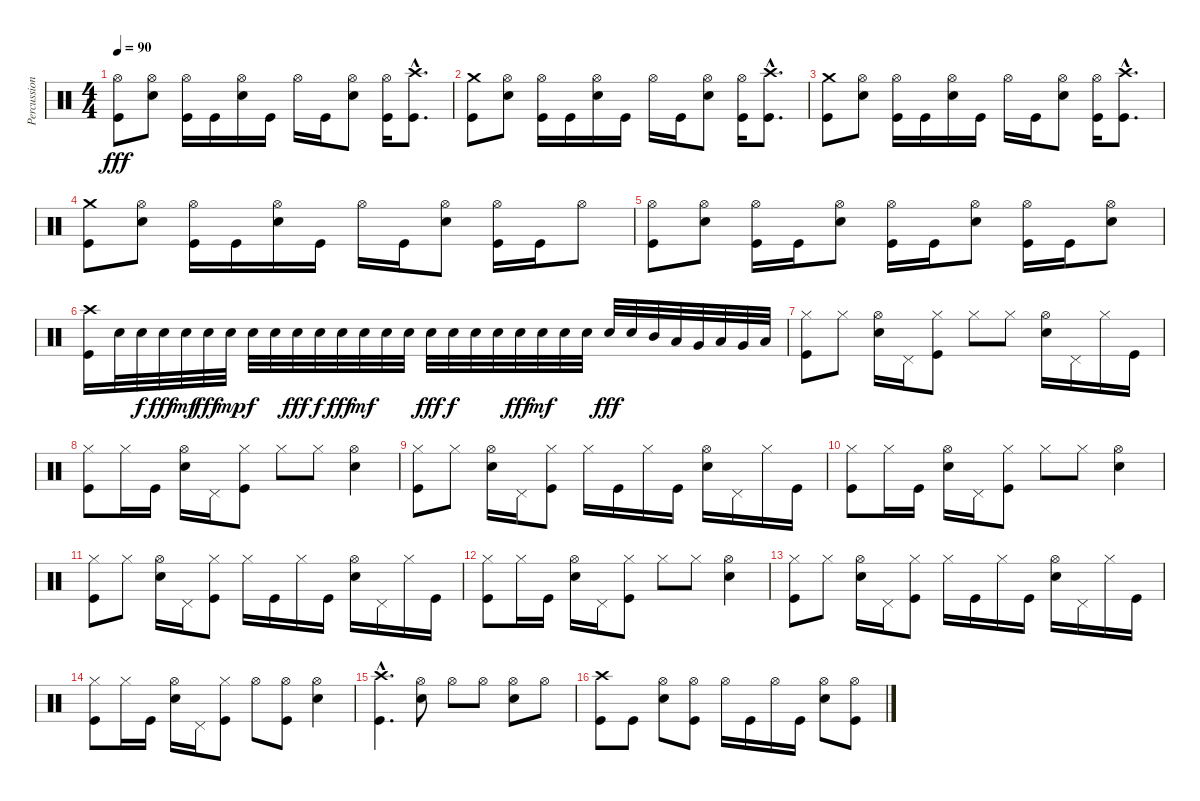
\track ("Percussion" "Percussion") {instrument percussion}
\staff {score}
\articulation defaults
\ts (4 4)
\tempo 90
\clef neutral
\ks c
("Hi-Hat (open)" "Kick (hit)").8{dy fff} ("Hi-Hat (open)" "Electric Snare (hit)").8 ("Hi-Hat (open)" "Kick (hit)").16 "Kick (hit)".16 ("Hi-Hat (open)" "Electric Snare (hit)").16 "Kick (hit)".16 "Hi-Hat (open)".16 "Kick (hit)".16 ("Hi-Hat (open)" "Electric Snare (hit)").8 ("Hi-Hat (open)" "Kick (hit)").16 ("Crash high (hit)"{hac} "Kick (hit)"{hac}).8{d} |
("Crash medium (hit)" "Kick (hit)").8 ("Hi-Hat (open)" "Electric Snare (hit)").8 ("Hi-Hat (open)" "Kick (hit)").16 "Kick (hit)".16 ("Hi-Hat (open)" "Electric Snare (hit)").16 "Kick (hit)".16 "Hi-Hat (open)".16 "Kick (hit)".16 ("Hi-Hat (open)" "Electric Snare (hit)").8 ("Hi-Hat (open)" "Kick (hit)").16 ("Crash high (hit)"{hac} "Kick (hit)"{hac}).8{d} |
("Crash medium (hit)" "Kick (hit)").8 ("Hi-Hat (open)" "Electric Snare (hit)").8 ("Hi-Hat (open)" "Kick (hit)").16 "Kick (hit)".16 ("Hi-Hat (open)" "Electric Snare (hit)").16 "Kick (hit)".16 "Hi-Hat (open)".16 "Kick (hit)".16 ("Hi-Hat (open)" "Electric Snare (hit)").8 ("Hi-Hat (open)" "Kick (hit)").16 ("Crash high (hit)"{hac} "Kick (hit)"{hac}).8{d} |
("Crash medium (hit)" "Kick (hit)").8 ("Hi-Hat (open)" "Electric Snare (hit)").8 ("Hi-Hat (open)" "Kick (hit)").16 "Kick (hit)".16 ("Hi-Hat (open)" "Electric Snare (hit)").16 "Kick (hit)".16 "Hi-Hat (open)".16 "Kick (hit)".16 ("Hi-Hat (open)" "Electric Snare (hit)").8 ("Hi-Hat (open)" "Kick (hit)").16 "Kick (hit)".16 "Hi-Hat (open)".8 |
("Hi-Hat (open)" "Kick (hit)").8 ("Hi-Hat (open)" "Electric Snare (hit)").8 ("Hi-Hat (open)" "Kick (hit)").16 "Kick (hit)".16 ("Hi-Hat (open)" "Electric Snare (hit)").8 ("Hi-Hat (open)" "Kick (hit)").16 "Kick (hit)".16 ("Hi-Hat (open)" "Electric Snare (hit)").8 ("Hi-Hat (open)" "Kick (hit)").16 "Kick (hit)".16 ("Hi-Hat (open)" "Electric Snare (hit)").8 |
("Crash high (hit)" "Kick (hit)").16 "Electric Snare (hit)".32 "Electric Snare (hit)".32{dy f} "Electric Snare (hit)".32{dy fff} "Electric Snare (hit)".32{dy mf} "Electric Snare (hit)".32{dy fff} "Electric Snare (hit)".32{dy mp} "Electric Snare (hit)".32{dy f} "Electric Snare (hit)".32 "Electric Snare (hit)".32{dy fff} "Electric Snare (hit)".32{dy f} "Electric Snare (hit)".32{dy fff} "Electric Snare (hit)".32{dy mf} "Electric Snare (hit)".32 "Electric Snare (hit)".32 "Electric Snare (hit)".32{dy fff} "Electric Snare (hit)".32{dy f} "Electric Snare (hit)".32 "Electric Snare (hit)".32 "Electric Snare (hit)".32{dy fff} "Electric Snare (hit)".32{dy mf} "Electric Snare (hit)".32 "Electric Snare (hit)".32 "Electric Snare (hit)".32{dy fff} "Electric Snare (hit)".32 "Mid Tom (hit)".32 "Low Tom (hit)".32 "Very Low Tom (hit)".32 "Low Tom (hit)".32 "Very Low Tom (hit)".32 "Low Floor Tom (hit)".32 |
("Hi-Hat (closed)" "Kick (hit)").8 "Hi-Hat (closed)".8 ("Hi-Hat (open)" "Electric Snare (hit)").16 "Pedal Hi-Hat (hit)".16 ("Hi-Hat (closed)" "Kick (hit)").8 "Hi-Hat (closed)".8 "Hi-Hat (closed)".8 ("Hi-Hat (open)" "Electric Snare (hit)").16 "Pedal Hi-Hat (hit)".16 "Hi-Hat (closed)".16 "Kick (hit)".16 |
("Hi-Hat (closed)" "Kick (hit)").8 "Hi-Hat (closed)".16 "Kick (hit)".16 ("Hi-Hat (open)" "Electric Snare (hit)").16 "Pedal Hi-Hat (hit)".16 ("Hi-Hat (closed)" "Kick (hit)").8 "Hi-Hat (closed)".8 "Hi-Hat (closed)".8 ("Hi-Hat (open)" "Electric Snare (hit)").4 |
("Hi-Hat (closed)" "Kick (hit)").8 "Hi-Hat (closed)".8 ("Hi-Hat (open)" "Electric Snare (hit)").16 "Pedal Hi-Hat (hit)".16 ("Hi-Hat (closed)" "Kick (hit)").8 "Hi-Hat (closed)".16 "Kick (hit)".16 "Hi-Hat (closed)".16 "Kick (hit)".16 ("Hi-Hat (open)" "Electric Snare (hit)").16 "Pedal Hi-Hat (hit)".16 "Hi-Hat (closed)".16 "Kick (hit)".16 |
("Hi-Hat (closed)" "Kick (hit)").8 "Hi-Hat (closed)".16 "Kick (hit)".16 ("Hi-Hat (open)" "Electric Snare (hit)").16 "Pedal Hi-Hat (hit)".16 ("Hi-Hat (closed)" "Kick (hit)").8 "Hi-Hat (closed)".8 "Hi-Hat (closed)".8 ("Hi-Hat (open)" "Electric Snare (hit)").4 |
("Hi-Hat (closed)" "Kick (hit)").8 "Hi-Hat (closed)".8 ("Hi-Hat (open)" "Electric Snare (hit)").16 "Pedal Hi-Hat (hit)".16 ("Hi-Hat (closed)" "Kick (hit)").8 "Hi-Hat (closed)".16 "Kick (hit)".16 "Hi-Hat (closed)".16 "Kick (hit)".16 ("Hi-Hat (open)" "Electric Snare (hit)").16 "Pedal Hi-Hat (hit)".16 "Hi-Hat (closed)".16 "Kick (hit)".16 |
("Hi-Hat (closed)" "Kick (hit)").8 "Hi-Hat (closed)".16 "Kick (hit)".16 ("Hi-Hat (open)" "Electric Snare (hit)").16 "Pedal Hi-Hat (hit)".16 ("Hi-Hat (closed)" "Kick (hit)").8 "Hi-Hat (closed)".8 "Hi-Hat (closed)".8 ("Hi-Hat (open)" "Electric Snare (hit)").4 |
("Hi-Hat (closed)" "Kick (hit)").8 "Hi-Hat (closed)".8 ("Hi-Hat (open)" "Electric Snare (hit)").16 "Pedal Hi-Hat (hit)".16 ("Hi-Hat (closed)" "Kick (hit)").8 "Hi-Hat (closed)".16 "Kick (hit)".16 "Hi-Hat (closed)".16 "Kick (hit)".16 ("Hi-Hat (open)" "Electric Snare (hit)").16 "Pedal Hi-Hat (hit)".16 "Hi-Hat (closed)".16 "Kick (hit)".16 |
("Hi-Hat (closed)" "Kick (hit)").8 "Hi-Hat (closed)".16 "Kick (hit)".16 ("Hi-Hat (open)" "Electric Snare (hit)").16 "Pedal Hi-Hat (hit)".16 ("Hi-Hat (closed)" "Kick (hit)").8 "Hi-Hat (open)".8 ("Hi-Hat (open)" "Kick (hit)").8 ("Hi-Hat (open)" "Electric Snare (hit)").4 |
("Crash high (hit)"{hac} "Kick (hit)"{hac}).4{d} ("Hi-Hat (open)" "Electric Snare (hit)").8 "Hi-Hat (open)".8 "Hi-Hat (open)".8 ("Hi-Hat (open)" "Electric Snare (hit)").8 "Hi-Hat (open)".8 |
("Crash high (hit)" "Kick (hit)").8 "Kick (hit)".8 ("Hi-Hat (open)" "Electric Snare (hit)").8 ("Hi-Hat (open)" "Kick (hit)").8 "Hi-Hat (open)".16 "Kick (hit)".16 "Hi-Hat (open)".16 "Kick (hit)".16 ("Hi-Hat (open)" "Electric Snare (hit)").8 ("Hi-Hat (open)" "Kick (hit)").8
